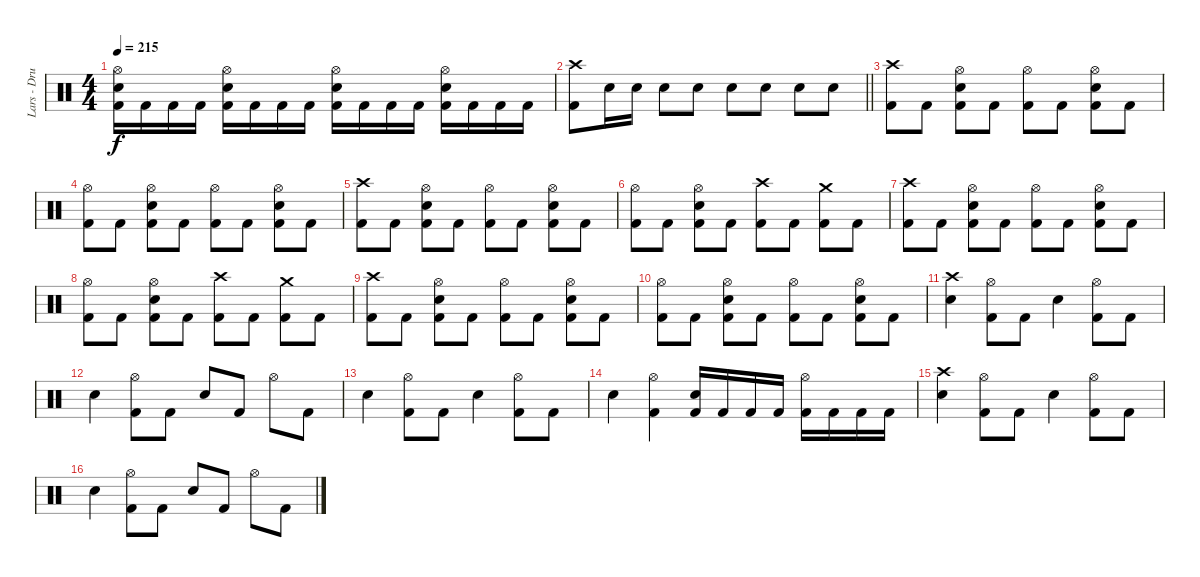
\track ("Lars - Drums" "Lars - Dru") {instrument percussion}
\staff {score}
\articulation defaults
\ts (4 4)
\tempo 215
\clef neutral
\ks c
("Kick (hit) 2" "Electric Snare (hit)" "Hi-Hat (open)").16{dy f} "Kick (hit) 2".16 "Kick (hit) 2".16 "Kick (hit) 2".16 ("Kick (hit) 2" "Electric Snare (hit)" "Hi-Hat (open)").16 "Kick (hit) 2".16 "Kick (hit) 2".16 "Kick (hit) 2".16 ("Kick (hit) 2" "Electric Snare (hit)" "Hi-Hat (open)").16 "Kick (hit) 2".16 "Kick (hit) 2".16 "Kick (hit) 2".16 ("Kick (hit) 2" "Electric Snare (hit)" "Hi-Hat (open)").16 "Kick (hit) 2".16 "Kick (hit) 2".16 "Kick (hit) 2".16 |
\barLineRight lightlight
("Kick (hit) 2" "Crash high (hit)").8 "Electric Snare (hit)".16 "Electric Snare (hit)".16 "Electric Snare (hit)".8 "Electric Snare (hit)".8 "Electric Snare (hit)".8 "Electric Snare (hit)".8 "Electric Snare (hit)".8 "Electric Snare (hit)".8 |
\section ("" "")
("Kick (hit) 2" "Crash high (hit)").8 "Kick (hit) 2".8 ("Kick (hit) 2" "Electric Snare (hit)" "Hi-Hat (open)").8 "Kick (hit) 2".8 ("Kick (hit) 2" "Hi-Hat (open)").8 "Kick (hit) 2".8 ("Kick (hit) 2" "Electric Snare (hit)" "Hi-Hat (open)").8 "Kick (hit) 2".8 |
("Kick (hit) 2" "Hi-Hat (open)").8 "Kick (hit) 2".8 ("Kick (hit) 2" "Electric Snare (hit)" "Hi-Hat (open)").8 "Kick (hit) 2".8 ("Kick (hit) 2" "Hi-Hat (open)").8 "Kick (hit) 2".8 ("Kick (hit) 2" "Electric Snare (hit)" "Hi-Hat (open)").8 "Kick (hit) 2".8 |
("Kick (hit) 2" "Crash high (hit)").8 "Kick (hit) 2".8 ("Kick (hit) 2" "Electric Snare (hit)" "Hi-Hat (open)").8 "Kick (hit) 2".8 ("Kick (hit) 2" "Hi-Hat (open)").8 "Kick (hit) 2".8 ("Kick (hit) 2" "Electric Snare (hit)" "Hi-Hat (open)").8 "Kick (hit) 2".8 |
("Kick (hit) 2" "Hi-Hat (open)").8 "Kick (hit) 2".8 ("Kick (hit) 2" "Electric Snare (hit)" "Hi-Hat (open)").8 "Kick (hit) 2".8 ("Kick (hit) 2" "Crash high (hit)").8 "Kick (hit) 2".8 ("Kick (hit) 2" "Crash medium (hit)").8 "Kick (hit) 2".8 |
("Kick (hit) 2" "Crash high (hit)").8 "Kick (hit) 2".8 ("Kick (hit) 2" "Electric Snare (hit)" "Hi-Hat (open)").8 "Kick (hit) 2".8 ("Kick (hit) 2" "Hi-Hat (open)").8 "Kick (hit) 2".8 ("Kick (hit) 2" "Electric Snare (hit)" "Hi-Hat (open)").8 "Kick (hit) 2".8 |
("Kick (hit) 2" "Hi-Hat (open)").8 "Kick (hit) 2".8 ("Kick (hit) 2" "Electric Snare (hit)" "Hi-Hat (open)").8 "Kick (hit) 2".8 ("Kick (hit) 2" "Crash high (hit)").8 "Kick (hit) 2".8 ("Kick (hit) 2" "Crash medium (hit)").8 "Kick (hit) 2".8 |
("Kick (hit) 2" "Crash high (hit)").8 "Kick (hit) 2".8 ("Kick (hit) 2" "Electric Snare (hit)" "Hi-Hat (open)").8 "Kick (hit) 2".8 ("Kick (hit) 2" "Hi-Hat (open)").8 "Kick (hit) 2".8 ("Kick (hit) 2" "Electric Snare (hit)" "Hi-Hat (open)").8 "Kick (hit) 2".8 |
("Kick (hit) 2" "Hi-Hat (open)").8 "Kick (hit) 2".8 ("Kick (hit) 2" "Electric Snare (hit)" "Hi-Hat (open)").8 "Kick (hit) 2".8 ("Kick (hit) 2" "Hi-Hat (open)").8 "Kick (hit) 2".8 ("Kick (hit) 2" "Electric Snare (hit)" "Hi-Hat (open)").8 "Kick (hit) 2".8 |
("Electric Snare (hit)" "Crash high (hit)").4 ("Kick (hit) 2" "Hi-Hat (open)").8 "Kick (hit) 2".8 "Electric Snare (hit)".4 ("Kick (hit) 2" "Hi-Hat (open)").8 "Kick (hit) 2".8 |
"Electric Snare (hit)".4 ("Kick (hit) 2" "Hi-Hat (open)").8 "Kick (hit) 2".8 "Electric Snare (hit)".8 "Kick (hit) 2".8 "Hi-Hat (open)".8 "Kick (hit) 2".8 |
"Electric Snare (hit)".4 ("Kick (hit) 2" "Hi-Hat (open)").8 "Kick (hit) 2".8 "Electric Snare (hit)".4 ("Kick (hit) 2" "Hi-Hat (open)").8 "Kick (hit) 2".8 |
"Electric Snare (hit)".4 ("Kick (hit) 2" "Hi-Hat (open)").4 ("Kick (hit) 2" "Electric Snare (hit)").16 "Kick (hit) 2".16 "Kick (hit) 2".16 "Kick (hit) 2".16 ("Kick (hit) 2" "Hi-Hat (open)").16 "Kick (hit) 2".16 "Kick (hit) 2".16 "Kick (hit) 2".16 |
("Electric Snare (hit)" "Crash high (hit)").4 ("Kick (hit) 2" "Hi-Hat (open)").8 "Kick (hit) 2".8 "Electric Snare (hit)".4 ("Kick (hit) 2" "Hi-Hat (open)").8 "Kick (hit) 2".8 |
"Electric Snare (hit)".4 ("Kick (hit) 2" "Hi-Hat (open)").8 "Kick (hit) 2".8 "Electric Snare (hit)".8 "Kick (hit) 2".8 "Hi-Hat (open)".8 "Kick (hit) 2".8
